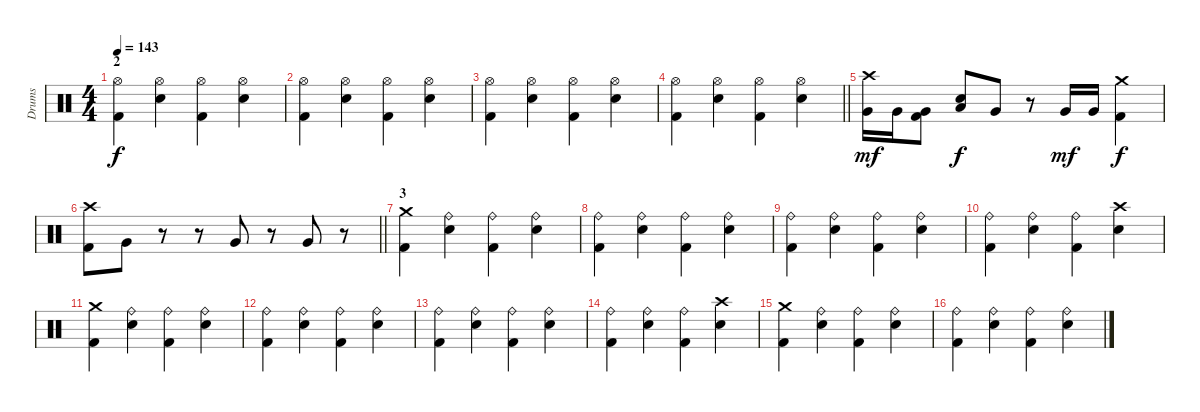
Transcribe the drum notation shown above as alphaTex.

\track ("Drums" "Drums") {instrument percussion}
\staff {score}
\articulation defaults
\ts (4 4)
\section ("" "2")
\tempo 143
\clef neutral
\ks c
("Hi-Hat (open)" "Kick (hit) 2").4{dy f} ("Hi-Hat (open)" "Electric Snare (hit)").4 ("Hi-Hat (open)" "Kick (hit) 2").4 ("Hi-Hat (open)" "Electric Snare (hit)").4 |
("Hi-Hat (open)" "Kick (hit) 2").4 ("Hi-Hat (open)" "Electric Snare (hit)").4 ("Hi-Hat (open)" "Kick (hit) 2").4 ("Hi-Hat (open)" "Electric Snare (hit)").4 |
("Hi-Hat (open)" "Kick (hit) 2").4 ("Hi-Hat (open)" "Electric Snare (hit)").4 ("Hi-Hat (open)" "Kick (hit) 2").4 ("Hi-Hat (open)" "Electric Snare (hit)").4 |
\barLineRight lightlight
("Hi-Hat (open)" "Kick (hit) 2").4 ("Hi-Hat (open)" "Electric Snare (hit)").4 ("Hi-Hat (open)" "Kick (hit) 2").4 ("Hi-Hat (open)" "Electric Snare (hit)").4 |
\section ("" "")
("Crash high (hit)" "Very Low Tom (hit)").16{dy mf} "Very Low Tom (hit)".16 ("Kick (hit) 2" "Very Low Tom (hit)").8 ("Electric Snare (hit)" "Low Tom (hit)").8{dy f} "Very Low Tom (hit)".8 r.8 "Very Low Tom (hit)".16{dy mf} "Very Low Tom (hit)".16 ("Crash medium (hit)" "Kick (hit) 2").4{dy f} |
\barLineRight lightlight
("Crash high (hit)" "Kick (hit) 2").8 "Very Low Tom (hit)".8 r.8 r.8 "Very Low Tom (hit)".8 r.8 "Very Low Tom (hit)".8 r.8 |
\section ("" "3")
("Crash medium (hit)" "Kick (hit) 2").4 ("Ride (bell)" "Electric Snare (hit)").4 ("Ride (bell)" "Kick (hit) 2").4 ("Ride (bell)" "Electric Snare (hit)").4 |
("Ride (bell)" "Kick (hit) 2").4 ("Ride (bell)" "Electric Snare (hit)").4 ("Ride (bell)" "Kick (hit) 2").4 ("Ride (bell)" "Electric Snare (hit)").4 |
("Ride (bell)" "Kick (hit) 2").4 ("Ride (bell)" "Electric Snare (hit)").4 ("Ride (bell)" "Kick (hit) 2").4 ("Ride (bell)" "Electric Snare (hit)").4 |
("Ride (bell)" "Kick (hit) 2").4 ("Ride (bell)" "Electric Snare (hit)").4 ("Ride (bell)" "Kick (hit) 2").4 ("Crash high (hit)" "Electric Snare (hit)").4 |
("Crash medium (hit)" "Kick (hit) 2").4 ("Ride (bell)" "Electric Snare (hit)").4 ("Ride (bell)" "Kick (hit) 2").4 ("Ride (bell)" "Electric Snare (hit)").4 |
("Ride (bell)" "Kick (hit) 2").4 ("Ride (bell)" "Electric Snare (hit)").4 ("Ride (bell)" "Kick (hit) 2").4 ("Ride (bell)" "Electric Snare (hit)").4 |
("Ride (bell)" "Kick (hit) 2").4 ("Ride (bell)" "Electric Snare (hit)").4 ("Ride (bell)" "Kick (hit) 2").4 ("Ride (bell)" "Electric Snare (hit)").4 |
("Ride (bell)" "Kick (hit) 2").4 ("Ride (bell)" "Electric Snare (hit)").4 ("Ride (bell)" "Kick (hit) 2").4 ("Crash high (hit)" "Electric Snare (hit)").4 |
("Crash medium (hit)" "Kick (hit) 2").4 ("Ride (bell)" "Electric Snare (hit)").4 ("Ride (bell)" "Kick (hit) 2").4 ("Ride (bell)" "Electric Snare (hit)").4 |
("Ride (bell)" "Kick (hit) 2").4 ("Ride (bell)" "Electric Snare (hit)").4 ("Ride (bell)" "Kick (hit) 2").4 ("Ride (bell)" "Electric Snare (hit)").4
